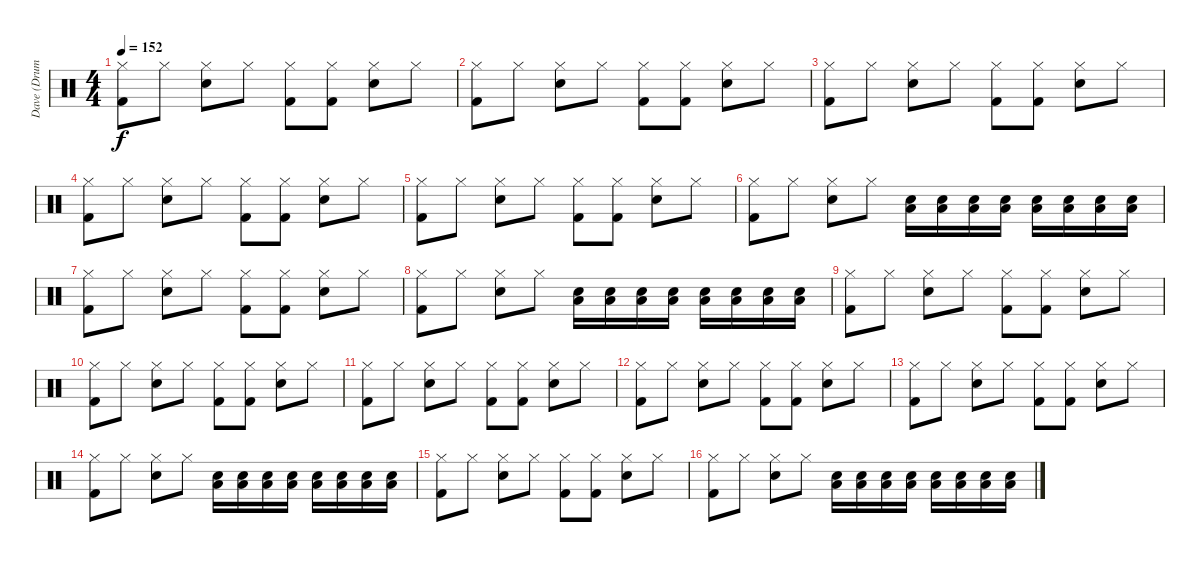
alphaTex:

\track ("Dave (Drums)" "Dave (Drum") {instrument percussion}
\staff {score}
\articulation defaults
\ts (4 4)
\tempo 152
\clef neutral
\ks c
("Hi-Hat (closed)" "Kick (hit) 2").8{dy f} "Hi-Hat (closed)".8 ("Hi-Hat (closed)" "Snare (hit) 2").8 "Hi-Hat (closed)".8 ("Hi-Hat (closed)" "Kick (hit) 2").8 ("Hi-Hat (closed)" "Kick (hit) 2").8 ("Hi-Hat (closed)" "Snare (hit) 2").8 "Hi-Hat (closed)".8 |
("Hi-Hat (closed)" "Kick (hit) 2").8 "Hi-Hat (closed)".8 ("Hi-Hat (closed)" "Snare (hit) 2").8 "Hi-Hat (closed)".8 ("Hi-Hat (closed)" "Kick (hit) 2").8 ("Hi-Hat (closed)" "Kick (hit) 2").8 ("Hi-Hat (closed)" "Snare (hit) 2").8 "Hi-Hat (closed)".8 |
("Hi-Hat (closed)" "Kick (hit) 2").8 "Hi-Hat (closed)".8 ("Hi-Hat (closed)" "Snare (hit) 2").8 "Hi-Hat (closed)".8 ("Hi-Hat (closed)" "Kick (hit) 2").8 ("Hi-Hat (closed)" "Kick (hit) 2").8 ("Hi-Hat (closed)" "Snare (hit) 2").8 "Hi-Hat (closed)".8 |
("Hi-Hat (closed)" "Kick (hit) 2").8 "Hi-Hat (closed)".8 ("Hi-Hat (closed)" "Snare (hit) 2").8 "Hi-Hat (closed)".8 ("Hi-Hat (closed)" "Kick (hit) 2").8 ("Hi-Hat (closed)" "Kick (hit) 2").8 ("Hi-Hat (closed)" "Snare (hit) 2").8 "Hi-Hat (closed)".8 |
("Hi-Hat (closed)" "Kick (hit) 2").8 "Hi-Hat (closed)".8 ("Hi-Hat (closed)" "Snare (hit) 2").8 "Hi-Hat (closed)".8 ("Hi-Hat (closed)" "Kick (hit) 2").8 ("Hi-Hat (closed)" "Kick (hit) 2").8 ("Hi-Hat (closed)" "Snare (hit) 2").8 "Hi-Hat (closed)".8 |
("Hi-Hat (closed)" "Kick (hit) 2").8 "Hi-Hat (closed)".8 ("Hi-Hat (closed)" "Snare (hit) 2").8 "Hi-Hat (closed)".8 ("Low Tom (hit)" "Snare (hit) 2").16 ("Low Tom (hit)" "Snare (hit) 2").16 ("Low Tom (hit)" "Snare (hit) 2").16 ("Low Tom (hit)" "Snare (hit) 2").16 ("Low Tom (hit)" "Snare (hit) 2").16 ("Low Tom (hit)" "Snare (hit) 2").16 ("Low Tom (hit)" "Snare (hit) 2").16 ("Low Tom (hit)" "Snare (hit) 2").16 |
("Hi-Hat (closed)" "Kick (hit) 2").8 "Hi-Hat (closed)".8 ("Hi-Hat (closed)" "Snare (hit) 2").8 "Hi-Hat (closed)".8 ("Hi-Hat (closed)" "Kick (hit) 2").8 ("Hi-Hat (closed)" "Kick (hit) 2").8 ("Hi-Hat (closed)" "Snare (hit) 2").8 "Hi-Hat (closed)".8 |
("Hi-Hat (closed)" "Kick (hit) 2").8 "Hi-Hat (closed)".8 ("Hi-Hat (closed)" "Snare (hit) 2").8 "Hi-Hat (closed)".8 ("Low Tom (hit)" "Snare (hit) 2").16 ("Low Tom (hit)" "Snare (hit) 2").16 ("Low Tom (hit)" "Snare (hit) 2").16 ("Low Tom (hit)" "Snare (hit) 2").16 ("Low Tom (hit)" "Snare (hit) 2").16 ("Low Tom (hit)" "Snare (hit) 2").16 ("Low Tom (hit)" "Snare (hit) 2").16 ("Low Tom (hit)" "Snare (hit) 2").16 |
("Hi-Hat (closed)" "Kick (hit) 2").8 "Hi-Hat (closed)".8 ("Hi-Hat (closed)" "Snare (hit) 2").8 "Hi-Hat (closed)".8 ("Hi-Hat (closed)" "Kick (hit) 2").8 ("Hi-Hat (closed)" "Kick (hit) 2").8 ("Hi-Hat (closed)" "Snare (hit) 2").8 "Hi-Hat (closed)".8 |
("Hi-Hat (closed)" "Kick (hit) 2").8 "Hi-Hat (closed)".8 ("Hi-Hat (closed)" "Snare (hit) 2").8 "Hi-Hat (closed)".8 ("Hi-Hat (closed)" "Kick (hit) 2").8 ("Hi-Hat (closed)" "Kick (hit) 2").8 ("Hi-Hat (closed)" "Snare (hit) 2").8 "Hi-Hat (closed)".8 |
("Hi-Hat (closed)" "Kick (hit) 2").8 "Hi-Hat (closed)".8 ("Hi-Hat (closed)" "Snare (hit) 2").8 "Hi-Hat (closed)".8 ("Hi-Hat (closed)" "Kick (hit) 2").8 ("Hi-Hat (closed)" "Kick (hit) 2").8 ("Hi-Hat (closed)" "Snare (hit) 2").8 "Hi-Hat (closed)".8 |
("Hi-Hat (closed)" "Kick (hit) 2").8 "Hi-Hat (closed)".8 ("Hi-Hat (closed)" "Snare (hit) 2").8 "Hi-Hat (closed)".8 ("Hi-Hat (closed)" "Kick (hit) 2").8 ("Hi-Hat (closed)" "Kick (hit) 2").8 ("Hi-Hat (closed)" "Snare (hit) 2").8 "Hi-Hat (closed)".8 |
("Hi-Hat (closed)" "Kick (hit) 2").8 "Hi-Hat (closed)".8 ("Hi-Hat (closed)" "Snare (hit) 2").8 "Hi-Hat (closed)".8 ("Hi-Hat (closed)" "Kick (hit) 2").8 ("Hi-Hat (closed)" "Kick (hit) 2").8 ("Hi-Hat (closed)" "Snare (hit) 2").8 "Hi-Hat (closed)".8 |
("Hi-Hat (closed)" "Kick (hit) 2").8 "Hi-Hat (closed)".8 ("Hi-Hat (closed)" "Snare (hit) 2").8 "Hi-Hat (closed)".8 ("Low Tom (hit)" "Snare (hit) 2").16 ("Low Tom (hit)" "Snare (hit) 2").16 ("Low Tom (hit)" "Snare (hit) 2").16 ("Low Tom (hit)" "Snare (hit) 2").16 ("Low Tom (hit)" "Snare (hit) 2").16 ("Low Tom (hit)" "Snare (hit) 2").16 ("Low Tom (hit)" "Snare (hit) 2").16 ("Low Tom (hit)" "Snare (hit) 2").16 |
("Hi-Hat (closed)" "Kick (hit) 2").8 "Hi-Hat (closed)".8 ("Hi-Hat (closed)" "Snare (hit) 2").8 "Hi-Hat (closed)".8 ("Hi-Hat (closed)" "Kick (hit) 2").8 ("Hi-Hat (closed)" "Kick (hit) 2").8 ("Hi-Hat (closed)" "Snare (hit) 2").8 "Hi-Hat (closed)".8 |
("Hi-Hat (closed)" "Kick (hit) 2").8 "Hi-Hat (closed)".8 ("Hi-Hat (closed)" "Snare (hit) 2").8 "Hi-Hat (closed)".8 ("Low Tom (hit)" "Snare (hit) 2").16 ("Low Tom (hit)" "Snare (hit) 2").16 ("Low Tom (hit)" "Snare (hit) 2").16 ("Low Tom (hit)" "Snare (hit) 2").16 ("Low Tom (hit)" "Snare (hit) 2").16 ("Low Tom (hit)" "Snare (hit) 2").16 ("Low Tom (hit)" "Snare (hit) 2").16 ("Low Tom (hit)" "Snare (hit) 2").16
